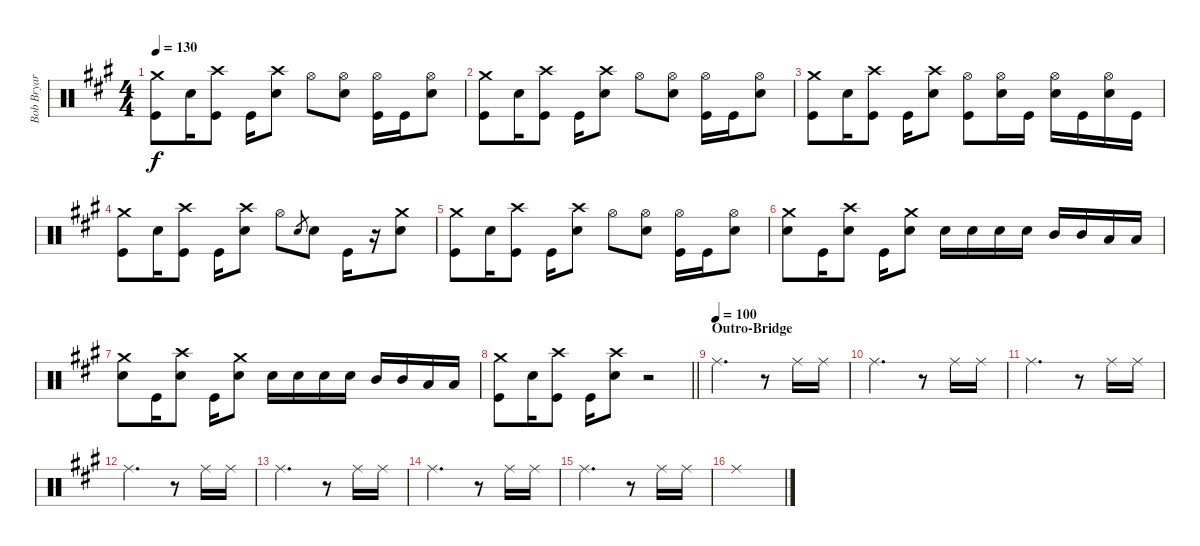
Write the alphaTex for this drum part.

\track ("Bob Bryar" "Bob Bryar") {instrument percussion}
\staff {score}
\articulation defaults
\ts (4 4)
\tempo 130
\clef neutral
\ks a
("Crash medium (hit)" "Kick (hit)").8{dy f} "Snare (hit) 2".16 ("Crash high (hit)" "Kick (hit)").8 "Kick (hit)".16 ("Crash high (hit)" "Snare (hit) 2").8 "Hi-Hat (open)".8 ("Hi-Hat (open)" "Snare (hit) 2").8 ("Hi-Hat (open)" "Kick (hit)").16 "Kick (hit)".16 ("Hi-Hat (open)" "Snare (hit) 2").8 |
("Crash medium (hit)" "Kick (hit)").8 "Snare (hit) 2".16 ("Crash high (hit)" "Kick (hit)").8 "Kick (hit)".16 ("Crash high (hit)" "Snare (hit) 2").8 "Hi-Hat (open)".8 ("Hi-Hat (open)" "Snare (hit) 2").8 ("Hi-Hat (open)" "Kick (hit)").16 "Kick (hit)".16 ("Hi-Hat (open)" "Snare (hit) 2").8 |
("Crash medium (hit)" "Kick (hit)").8 "Snare (hit) 2".16 ("Crash high (hit)" "Kick (hit)").8 "Kick (hit)".16 ("Crash high (hit)" "Snare (hit) 2").8 ("Hi-Hat (open)" "Kick (hit)").8 ("Hi-Hat (open)" "Snare (hit) 2").16 "Kick (hit)".16 ("Hi-Hat (open)" "Snare (hit) 2").16 "Kick (hit)".16 ("Hi-Hat (open)" "Snare (hit) 2").16 "Kick (hit)".16 |
("Crash medium (hit)" "Kick (hit)").8 "Snare (hit) 2".16 ("Crash high (hit)" "Kick (hit)").8 "Kick (hit)".16 ("Crash high (hit)" "Snare (hit) 2").8 "Hi-Hat (open)".8 "Snare (hit) 2".8{gr} "Snare (hit) 2".8 "Kick (hit)".16 r.16 ("Crash medium (hit)" "Snare (hit) 2").8 |
("Crash medium (hit)" "Kick (hit)").8 "Snare (hit) 2".16 ("Crash high (hit)" "Kick (hit)").8 "Kick (hit)".16 ("Crash high (hit)" "Snare (hit) 2").8 "Hi-Hat (open)".8 ("Hi-Hat (open)" "Snare (hit) 2").8 ("Hi-Hat (open)" "Kick (hit)").16 "Kick (hit)".16 ("Hi-Hat (open)" "Snare (hit) 2").8 |
("Crash medium (hit)" "Snare (hit) 2").8 "Kick (hit)".16 ("Crash high (hit)" "Snare (hit) 2").8 "Kick (hit)".16 ("Crash medium (hit)" "Snare (hit) 2").8 "Snare (hit) 2".16 "Snare (hit) 2".16 "Snare (hit) 2".16 "Snare (hit) 2".16 "Mid Tom (hit)".16 "Mid Tom (hit)".16 "Low Tom (hit)".16 "Low Tom (hit)".16 |
("Crash medium (hit)" "Snare (hit) 2").8 "Kick (hit)".16 ("Crash high (hit)" "Snare (hit) 2").8 "Kick (hit)".16 ("Crash medium (hit)" "Snare (hit) 2").8 "Snare (hit) 2".16 "Snare (hit) 2".16 "Snare (hit) 2".16 "Snare (hit) 2".16 "Mid Tom (hit)".16 "Mid Tom (hit)".16 "Low Tom (hit)".16 "Low Tom (hit)".16 |
\barLineRight lightlight
("Crash medium (hit)" "Kick (hit)").8 "Snare (hit) 2".16 ("Crash high (hit)" "Kick (hit)").8 "Kick (hit)".16 ("Crash high (hit)" "Snare (hit) 2").8 r.2 |
\section ("" "Outro-Bridge")
\tempo (100)
"Ride (middle)".2{d} r.8 "Ride (middle)".16 "Ride (middle)".16 |
"Ride (middle)".2{d} r.8 "Ride (middle)".16 "Ride (middle)".16 |
"Ride (middle)".2{d} r.8 "Ride (middle)".16 "Ride (middle)".16 |
"Ride (middle)".2{d} r.8 "Ride (middle)".16 "Ride (middle)".16 |
"Ride (middle)".2{d} r.8 "Ride (middle)".16 "Ride (middle)".16 |
"Ride (middle)".2{d} r.8 "Ride (middle)".16 "Ride (middle)".16 |
"Ride (middle)".2{d} r.8 "Ride (middle)".16 "Ride (middle)".16 |
"Ride (middle)".1
